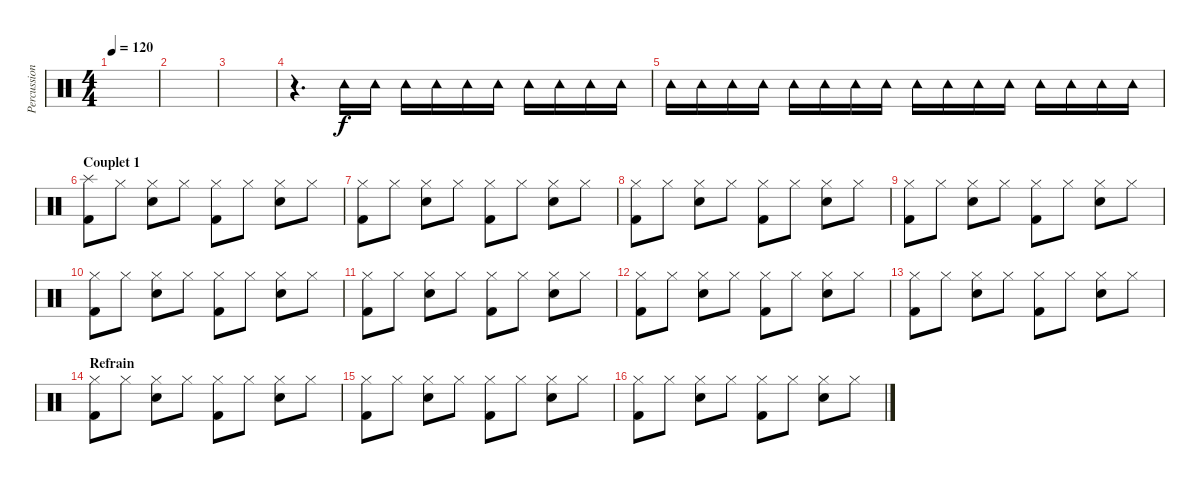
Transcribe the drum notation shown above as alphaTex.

\track ("Percussions" "Percussion") {instrument percussion}
\staff {score}
\articulation defaults
\ts (4 4)
\tempo 120
\clef neutral
\ks c
|
|
|
r.4{d} "Tambourine (hit)".16 "Tambourine (hit)".16 "Tambourine (hit)".16 "Tambourine (hit)".16 "Tambourine (hit)".16 "Tambourine (hit)".16 "Tambourine (hit)".16 "Tambourine (hit)".16 "Tambourine (hit)".16 "Tambourine (hit)".16 |
"Tambourine (hit)".16 "Tambourine (hit)".16 "Tambourine (hit)".16 "Tambourine (hit)".16 "Tambourine (hit)".16 "Tambourine (hit)".16 "Tambourine (hit)".16 "Tambourine (hit)".16 "Tambourine (hit)".16 "Tambourine (hit)".16 "Tambourine (hit)".16 "Tambourine (hit)".16 "Tambourine (hit)".16 "Tambourine (hit)".16 "Tambourine (hit)".16 "Tambourine (hit)".16 |
\section ("" "Couplet 1")
("Kick (hit) 2" "Splash (hit)").8 "Hi-Hat (closed)".8 ("Electric Snare (hit)" "Hi-Hat (closed)").8 "Hi-Hat (closed)".8 ("Kick (hit) 2" "Hi-Hat (closed)").8 "Hi-Hat (closed)".8 ("Electric Snare (hit)" "Hi-Hat (closed)").8 "Hi-Hat (closed)".8 |
("Kick (hit) 2" "Hi-Hat (closed)").8 "Hi-Hat (closed)".8 ("Electric Snare (hit)" "Hi-Hat (closed)").8 "Hi-Hat (closed)".8 ("Kick (hit) 2" "Hi-Hat (closed)").8 "Hi-Hat (closed)".8 ("Electric Snare (hit)" "Hi-Hat (closed)").8 "Hi-Hat (closed)".8 |
("Kick (hit) 2" "Hi-Hat (closed)").8 "Hi-Hat (closed)".8 ("Electric Snare (hit)" "Hi-Hat (closed)").8 "Hi-Hat (closed)".8 ("Kick (hit) 2" "Hi-Hat (closed)").8 "Hi-Hat (closed)".8 ("Electric Snare (hit)" "Hi-Hat (closed)").8 "Hi-Hat (closed)".8 |
("Kick (hit) 2" "Hi-Hat (closed)").8 "Hi-Hat (closed)".8 ("Electric Snare (hit)" "Hi-Hat (closed)").8 "Hi-Hat (closed)".8 ("Kick (hit) 2" "Hi-Hat (closed)").8 "Hi-Hat (closed)".8 ("Electric Snare (hit)" "Hi-Hat (closed)").8 "Hi-Hat (closed)".8 |
("Kick (hit) 2" "Hi-Hat (closed)").8 "Hi-Hat (closed)".8 ("Electric Snare (hit)" "Hi-Hat (closed)").8 "Hi-Hat (closed)".8 ("Kick (hit) 2" "Hi-Hat (closed)").8 "Hi-Hat (closed)".8 ("Electric Snare (hit)" "Hi-Hat (closed)").8 "Hi-Hat (closed)".8 |
("Kick (hit) 2" "Hi-Hat (closed)").8 "Hi-Hat (closed)".8 ("Electric Snare (hit)" "Hi-Hat (closed)").8 "Hi-Hat (closed)".8 ("Kick (hit) 2" "Hi-Hat (closed)").8 "Hi-Hat (closed)".8 ("Electric Snare (hit)" "Hi-Hat (closed)").8 "Hi-Hat (closed)".8 |
("Kick (hit) 2" "Hi-Hat (closed)").8 "Hi-Hat (closed)".8 ("Electric Snare (hit)" "Hi-Hat (closed)").8 "Hi-Hat (closed)".8 ("Kick (hit) 2" "Hi-Hat (closed)").8 "Hi-Hat (closed)".8 ("Electric Snare (hit)" "Hi-Hat (closed)").8 "Hi-Hat (closed)".8 |
("Kick (hit) 2" "Hi-Hat (closed)").8 "Hi-Hat (closed)".8 ("Electric Snare (hit)" "Hi-Hat (closed)").8 "Hi-Hat (closed)".8 ("Kick (hit) 2" "Hi-Hat (closed)").8 "Hi-Hat (closed)".8 ("Electric Snare (hit)" "Hi-Hat (closed)").8 "Hi-Hat (closed)".8 |
\section ("" "Refrain")
("Kick (hit) 2" "Hi-Hat (closed)").8 "Hi-Hat (closed)".8 ("Electric Snare (hit)" "Hi-Hat (closed)").8 "Hi-Hat (closed)".8 ("Kick (hit) 2" "Hi-Hat (closed)").8 "Hi-Hat (closed)".8 ("Electric Snare (hit)" "Hi-Hat (closed)").8 "Hi-Hat (closed)".8 |
("Kick (hit) 2" "Hi-Hat (closed)").8 "Hi-Hat (closed)".8 ("Electric Snare (hit)" "Hi-Hat (closed)").8 "Hi-Hat (closed)".8 ("Kick (hit) 2" "Hi-Hat (closed)").8 "Hi-Hat (closed)".8 ("Electric Snare (hit)" "Hi-Hat (closed)").8 "Hi-Hat (closed)".8 |
("Kick (hit) 2" "Hi-Hat (closed)").8 "Hi-Hat (closed)".8 ("Electric Snare (hit)" "Hi-Hat (closed)").8 "Hi-Hat (closed)".8 ("Kick (hit) 2" "Hi-Hat (closed)").8 "Hi-Hat (closed)".8 ("Electric Snare (hit)" "Hi-Hat (closed)").8 "Hi-Hat (closed)".8
